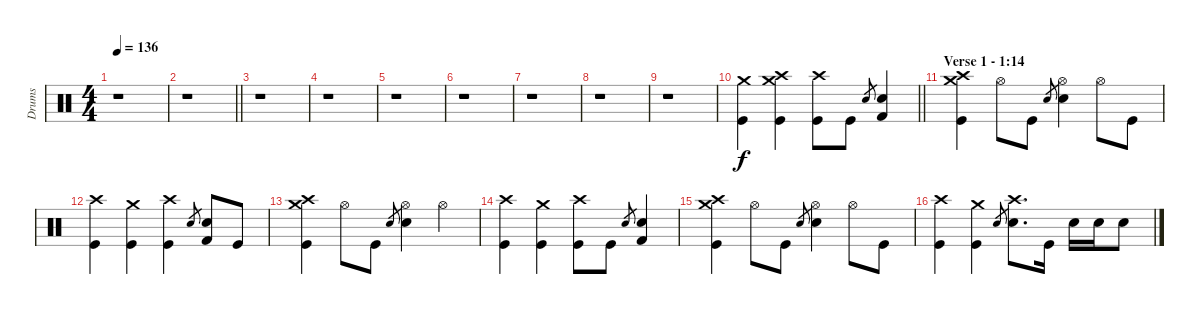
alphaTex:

\track ("Drums" "Drums") {instrument percussion}
\staff {score}
\articulation defaults
\ts (4 4)
\tempo 136
\clef neutral
\ks c
r.1{dy f} |
\barLineRight lightlight
r.1 |
r.1 |
r.1 |
r.1 |
r.1 |
r.1 |
r.1 |
r.1 |
\barLineRight lightlight
("Crash medium (hit)" "Kick (hit)").4 ("Crash medium (hit)" "Crash high (hit)" "Kick (hit)").4 ("Crash high (hit)" "Kick (hit)").8 "Kick (hit)".8 "Snare (hit) 2".8{gr} ("Snare (hit) 2" "Kick (hit) 2").4 |
\section ("" "Verse 1 - 1:14")
("Crash medium (hit)" "Crash high (hit)" "Kick (hit)").4 "Hi-Hat (open)".8 "Kick (hit)".8 "Snare (hit) 2".8{gr} ("Hi-Hat (open)" "Snare (hit) 2").4 "Hi-Hat (open)".8 "Kick (hit)".8 |
("Crash high (hit)" "Kick (hit)").4 ("Crash medium (hit)" "Kick (hit)").4 ("Crash high (hit)" "Kick (hit)").4 "Snare (hit) 2".8{gr} ("Snare (hit) 2" "Kick (hit) 2").8 "Kick (hit)".8 |
("Crash medium (hit)" "Crash high (hit)" "Kick (hit)").4 "Hi-Hat (open)".8 "Kick (hit)".8 "Snare (hit) 2".8{gr} ("Hi-Hat (open)" "Snare (hit) 2").4 "Hi-Hat (open)".4 |
("Crash high (hit)" "Kick (hit)").4 ("Crash medium (hit)" "Kick (hit)").4 ("Crash high (hit)" "Kick (hit)").8 "Kick (hit)".8 "Snare (hit) 2".8{gr} ("Snare (hit) 2" "Kick (hit) 2").4 |
("Crash medium (hit)" "Crash high (hit)" "Kick (hit)").4 "Hi-Hat (open)".8 "Kick (hit)".8 "Snare (hit) 2".8{gr} ("Hi-Hat (open)" "Snare (hit) 2").4 "Hi-Hat (open)".8 "Kick (hit)".8 |
("Crash high (hit)" "Kick (hit)").4 ("Crash medium (hit)" "Kick (hit)").4 "Snare (hit) 2".8{gr} ("Crash high (hit)" "Snare (hit) 2").8{d} "Kick (hit)".16 "Snare (hit) 2".16 "Snare (hit) 2".16 "Snare (hit) 2".8
